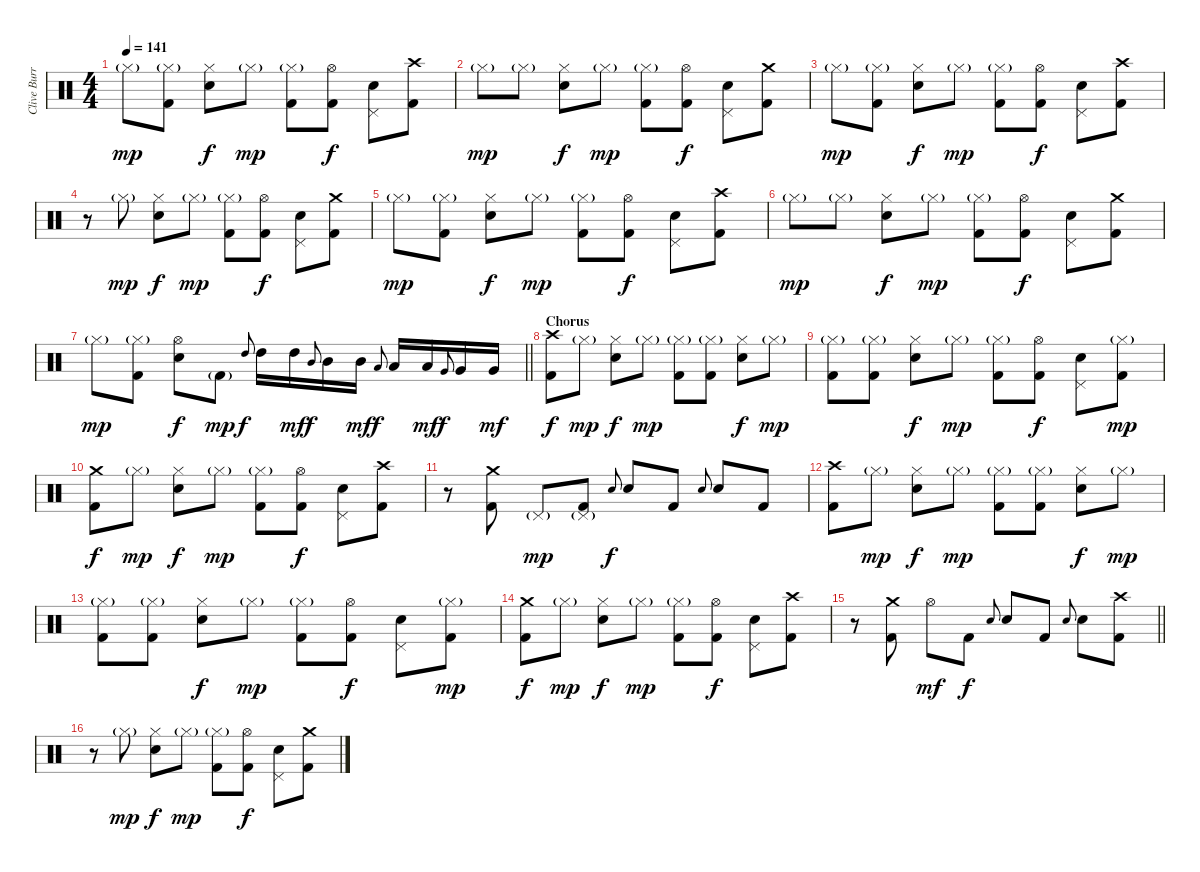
\track ("Clive Burr" "Clive Burr") {instrument percussion}
\staff {score}
\articulation defaults
\ts (4 4)
\tempo 141
\clef neutral
\ks c "Hi-Hat (closed)"{g}.8{dy mp}
("Hi-Hat (closed)"{g} "Kick (hit) 2").8 ("Hi-Hat (closed)" "Snare (hit) 2").8{dy f} "Hi-Hat (closed)"{g}.8{dy mp} ("Hi-Hat (closed)"{g} "Kick (hit) 2").8 ("Hi-Hat (open)" "Kick (hit) 2").8{dy f} ("Pedal Hi-Hat (hit)" "Snare (hit) 2").8 ("Crash high (hit)" "Kick (hit) 2").8 |
"Hi-Hat (closed)"{g}.8{dy mp} "Hi-Hat (closed)"{g}.8 ("Hi-Hat (closed)" "Snare (hit) 2").8{dy f} "Hi-Hat (closed)"{g}.8{dy mp} ("Hi-Hat (closed)"{g} "Kick (hit) 2").8 ("Hi-Hat (open)" "Kick (hit) 2").8{dy f} ("Pedal Hi-Hat (hit)" "Snare (hit) 2").8 ("Crash medium (hit)" "Kick (hit) 2").8 |
"Hi-Hat (closed)"{g}.8{dy mp} ("Hi-Hat (closed)"{g} "Kick (hit) 2").8 ("Hi-Hat (closed)" "Snare (hit) 2").8{dy f} "Hi-Hat (closed)"{g}.8{dy mp} ("Hi-Hat (closed)"{g} "Kick (hit) 2").8 ("Hi-Hat (open)" "Kick (hit) 2").8{dy f} ("Pedal Hi-Hat (hit)" "Snare (hit) 2").8 ("Crash high (hit)" "Kick (hit) 2").8 |
r.8 "Hi-Hat (closed)"{g}.8{dy mp} ("Hi-Hat (closed)" "Snare (hit) 2").8{dy f} "Hi-Hat (closed)"{g}.8{dy mp} ("Hi-Hat (closed)"{g} "Kick (hit) 2").8 ("Hi-Hat (open)" "Kick (hit) 2").8{dy f} ("Pedal Hi-Hat (hit)" "Snare (hit) 2").8 ("Crash medium (hit)" "Kick (hit) 2").8 |
"Hi-Hat (closed)"{g}.8{dy mp} ("Hi-Hat (closed)"{g} "Kick (hit) 2").8 ("Hi-Hat (closed)" "Snare (hit) 2").8{dy f} "Hi-Hat (closed)"{g}.8{dy mp} ("Hi-Hat (closed)"{g} "Kick (hit) 2").8 ("Hi-Hat (open)" "Kick (hit) 2").8{dy f} ("Pedal Hi-Hat (hit)" "Snare (hit) 2").8 ("Crash high (hit)" "Kick (hit) 2").8 |
"Hi-Hat (closed)"{g}.8{dy mp} "Hi-Hat (closed)"{g}.8 ("Hi-Hat (closed)" "Snare (hit) 2").8{dy f} "Hi-Hat (closed)"{g}.8{dy mp} ("Hi-Hat (closed)"{g} "Kick (hit) 2").8 ("Hi-Hat (open)" "Kick (hit) 2").8{dy f} ("Pedal Hi-Hat (hit)" "Snare (hit) 2").8 ("Crash medium (hit)" "Kick (hit) 2").8 |
\barLineRight lightlight "Hi-Hat (closed)"{g}.8{dy mp}
("Hi-Hat (closed)"{g} "Kick (hit) 2").8 ("Hi-Hat (open)" "Snare (hit) 2").8{dy f} "Kick (hit) 2"{g}.8{dy mp} "High Tom (hit)".8{gr onbeat dy f} "High Tom (hit)".16 "High Tom (hit)".16{dy mf} "Mid Tom (hit)".8{gr onbeat dy f} "Mid Tom (hit)".16 "Mid Tom (hit)".16{dy mf} "Low Tom (hit)".8{gr onbeat dy f} "Low Tom (hit)".16 "Low Tom (hit)".16{dy mf} "Very Low Tom (hit)".8{gr onbeat dy f} "Very Low Tom (hit)".16 "Very Low Tom (hit)".16{dy mf} |
\section ("" "Chorus")
("Crash high (hit)" "Kick (hit) 2").8{dy f} "Hi-Hat (closed)"{g}.8{dy mp} ("Hi-Hat (closed)" "Snare (hit) 2").8{dy f} "Hi-Hat (closed)"{g}.8{dy mp} ("Hi-Hat (closed)"{g} "Kick (hit) 2").8 ("Hi-Hat (closed)"{g} "Kick (hit) 2").8 ("Hi-Hat (closed)" "Snare (hit) 2").8{dy f} "Hi-Hat (closed)"{g}.8{dy mp} |
("Hi-Hat (closed)"{g} "Kick (hit) 2").8 ("Hi-Hat (closed)"{g} "Kick (hit) 2").8 ("Hi-Hat (closed)" "Snare (hit) 2").8{dy f} "Hi-Hat (closed)"{g}.8{dy mp} ("Hi-Hat (closed)"{g} "Kick (hit) 2").8 ("Hi-Hat (open)" "Kick (hit) 2").8{dy f} ("Pedal Hi-Hat (hit)" "Snare (hit) 2").8 ("Hi-Hat (closed)"{g} "Kick (hit) 2").8{dy mp} |
("Crash medium (hit)" "Kick (hit) 2").8{dy f} "Hi-Hat (closed)"{g}.8{dy mp} ("Hi-Hat (closed)" "Snare (hit) 2").8{dy f} "Hi-Hat (closed)"{g}.8{dy mp} ("Hi-Hat (closed)"{g} "Kick (hit) 2").8 ("Hi-Hat (open)" "Kick (hit) 2").8{dy f} ("Pedal Hi-Hat (hit)" "Snare (hit) 2").8 ("Crash high (hit)" "Kick (hit) 2").8 |
r.8 ("Crash medium (hit)" "Kick (hit) 2").8 "Pedal Hi-Hat (hit)"{g}.8{dy mp} ("Pedal Hi-Hat (hit)"{g} "Kick (hit) 2").8 "Snare (hit) 2".8{gr onbeat dy f} "Snare (hit) 2".8 "Kick (hit) 2".8 "Snare (hit) 2".8{gr onbeat} "Snare (hit) 2".8 "Kick (hit) 2".8 |
("Crash high (hit)" "Kick (hit) 2").8 "Hi-Hat (closed)"{g}.8{dy mp} ("Hi-Hat (closed)" "Snare (hit) 2").8{dy f} "Hi-Hat (closed)"{g}.8{dy mp} ("Hi-Hat (closed)"{g} "Kick (hit) 2").8 ("Hi-Hat (closed)"{g} "Kick (hit) 2").8 ("Hi-Hat (closed)" "Snare (hit) 2").8{dy f} "Hi-Hat (closed)"{g}.8{dy mp} |
("Hi-Hat (closed)"{g} "Kick (hit) 2").8 ("Hi-Hat (closed)"{g} "Kick (hit) 2").8 ("Hi-Hat (closed)" "Snare (hit) 2").8{dy f} "Hi-Hat (closed)"{g}.8{dy mp} ("Hi-Hat (closed)"{g} "Kick (hit) 2").8 ("Hi-Hat (open)" "Kick (hit) 2").8{dy f} ("Pedal Hi-Hat (hit)" "Snare (hit) 2").8 ("Hi-Hat (closed)"{g} "Kick (hit) 2").8{dy mp} |
("Crash medium (hit)" "Kick (hit) 2").8{dy f} "Hi-Hat (closed)"{g}.8{dy mp} ("Hi-Hat (closed)" "Snare (hit) 2").8{dy f} "Hi-Hat (closed)"{g}.8{dy mp} ("Hi-Hat (closed)"{g} "Kick (hit) 2").8 ("Hi-Hat (open)" "Kick (hit) 2").8{dy f} ("Pedal Hi-Hat (hit)" "Snare (hit) 2").8 ("Crash high (hit)" "Kick (hit) 2").8 |
\barLineRight lightlight
r.8 ("Crash medium (hit)" "Kick (hit) 2").8 "Hi-Hat (open)".8{dy mf} "Kick (hit) 2".8{dy f} "Snare (hit) 2".8{gr onbeat} "Snare (hit) 2".8 "Kick (hit) 2".8 "Snare (hit) 2".8{gr onbeat} "Snare (hit) 2".8 ("Crash high (hit)" "Kick (hit) 2").8 |
\section ("" "")
r.8 "Hi-Hat (closed)"{g}.8{dy mp} ("Hi-Hat (closed)" "Snare (hit) 2").8{dy f} "Hi-Hat (closed)"{g}.8{dy mp} ("Hi-Hat (closed)"{g} "Kick (hit) 2").8 ("Hi-Hat (open)" "Kick (hit) 2").8{dy f} ("Pedal Hi-Hat (hit)" "Snare (hit) 2").8 ("Crash medium (hit)" "Kick (hit) 2").8
